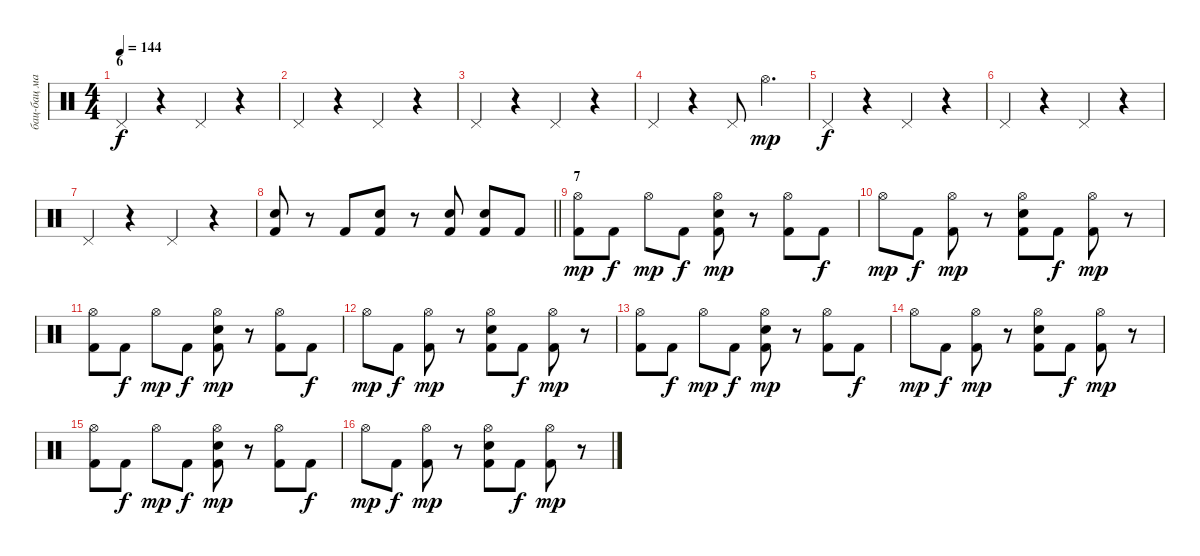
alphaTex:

\track ("бац-бац машина" "бац-бац ма") {instrument percussion}
\staff {score}
\articulation defaults
\ts (4 4)
\section ("" "6")
\tempo 144
\clef neutral
\ks c "Pedal Hi-Hat (hit)".4{dy f}
r.4 "Pedal Hi-Hat (hit)".4 r.4 |
"Pedal Hi-Hat (hit)".4 r.4 "Pedal Hi-Hat (hit)".4 r.4 |
"Pedal Hi-Hat (hit)".4 r.4 "Pedal Hi-Hat (hit)".4 r.4 |
"Pedal Hi-Hat (hit)".4 r.4 "Pedal Hi-Hat (hit)".8 "Hi-Hat (open)".4{d dy mp} |
"Pedal Hi-Hat (hit)".4{dy f} r.4 "Pedal Hi-Hat (hit)".4 r.4 |
"Pedal Hi-Hat (hit)".4 r.4 "Pedal Hi-Hat (hit)".4 r.4 |
"Pedal Hi-Hat (hit)".4 r.4 "Pedal Hi-Hat (hit)".4 r.4 |
\barLineRight lightlight
("Snare (hit) 2" "Kick (hit) 2").8 r.8 "Kick (hit) 2".8 ("Snare (hit) 2" "Kick (hit) 2").8 r.8 ("Snare (hit) 2" "Kick (hit) 2").8 ("Snare (hit) 2" "Kick (hit) 2").8 "Kick (hit) 2".8 |
\section ("" "7")
("Hi-Hat (open)" "Kick (hit) 2").8{dy mp} "Kick (hit) 2".8{dy f} "Hi-Hat (open)".8{dy mp} "Kick (hit) 2".8{dy f} ("Hi-Hat (open)" "Snare (hit) 2" "Kick (hit) 2").8{dy mp} r.8 ("Hi-Hat (open)" "Kick (hit) 2").8 "Kick (hit) 2".8{dy f} |
"Hi-Hat (open)".8{dy mp} "Kick (hit) 2".8{dy f} ("Hi-Hat (open)" "Kick (hit) 2").8{dy mp} r.8 ("Hi-Hat (open)" "Snare (hit) 2" "Kick (hit) 2").8 "Kick (hit) 2".8{dy f} ("Hi-Hat (open)" "Kick (hit) 2").8{dy mp} r.8 |
("Hi-Hat (open)" "Kick (hit) 2").8 "Kick (hit) 2".8{dy f} "Hi-Hat (open)".8{dy mp} "Kick (hit) 2".8{dy f} ("Hi-Hat (open)" "Snare (hit) 2" "Kick (hit) 2").8{dy mp} r.8 ("Hi-Hat (open)" "Kick (hit) 2").8 "Kick (hit) 2".8{dy f} |
"Hi-Hat (open)".8{dy mp} "Kick (hit) 2".8{dy f} ("Hi-Hat (open)" "Kick (hit) 2").8{dy mp} r.8 ("Hi-Hat (open)" "Snare (hit) 2" "Kick (hit) 2").8 "Kick (hit) 2".8{dy f} ("Hi-Hat (open)" "Kick (hit) 2").8{dy mp} r.8 |
("Hi-Hat (open)" "Kick (hit) 2").8 "Kick (hit) 2".8{dy f} "Hi-Hat (open)".8{dy mp} "Kick (hit) 2".8{dy f} ("Hi-Hat (open)" "Snare (hit) 2" "Kick (hit) 2").8{dy mp} r.8 ("Hi-Hat (open)" "Kick (hit) 2").8 "Kick (hit) 2".8{dy f} |
"Hi-Hat (open)".8{dy mp} "Kick (hit) 2".8{dy f} ("Hi-Hat (open)" "Kick (hit) 2").8{dy mp} r.8 ("Hi-Hat (open)" "Snare (hit) 2" "Kick (hit) 2").8 "Kick (hit) 2".8{dy f} ("Hi-Hat (open)" "Kick (hit) 2").8{dy mp} r.8 |
("Hi-Hat (open)" "Kick (hit) 2").8 "Kick (hit) 2".8{dy f} "Hi-Hat (open)".8{dy mp} "Kick (hit) 2".8{dy f} ("Hi-Hat (open)" "Snare (hit) 2" "Kick (hit) 2").8{dy mp} r.8 ("Hi-Hat (open)" "Kick (hit) 2").8 "Kick (hit) 2".8{dy f} |
"Hi-Hat (open)".8{dy mp} "Kick (hit) 2".8{dy f} ("Hi-Hat (open)" "Kick (hit) 2").8{dy mp} r.8 ("Hi-Hat (open)" "Snare (hit) 2" "Kick (hit) 2").8 "Kick (hit) 2".8{dy f} ("Hi-Hat (open)" "Kick (hit) 2").8{dy mp} r.8
